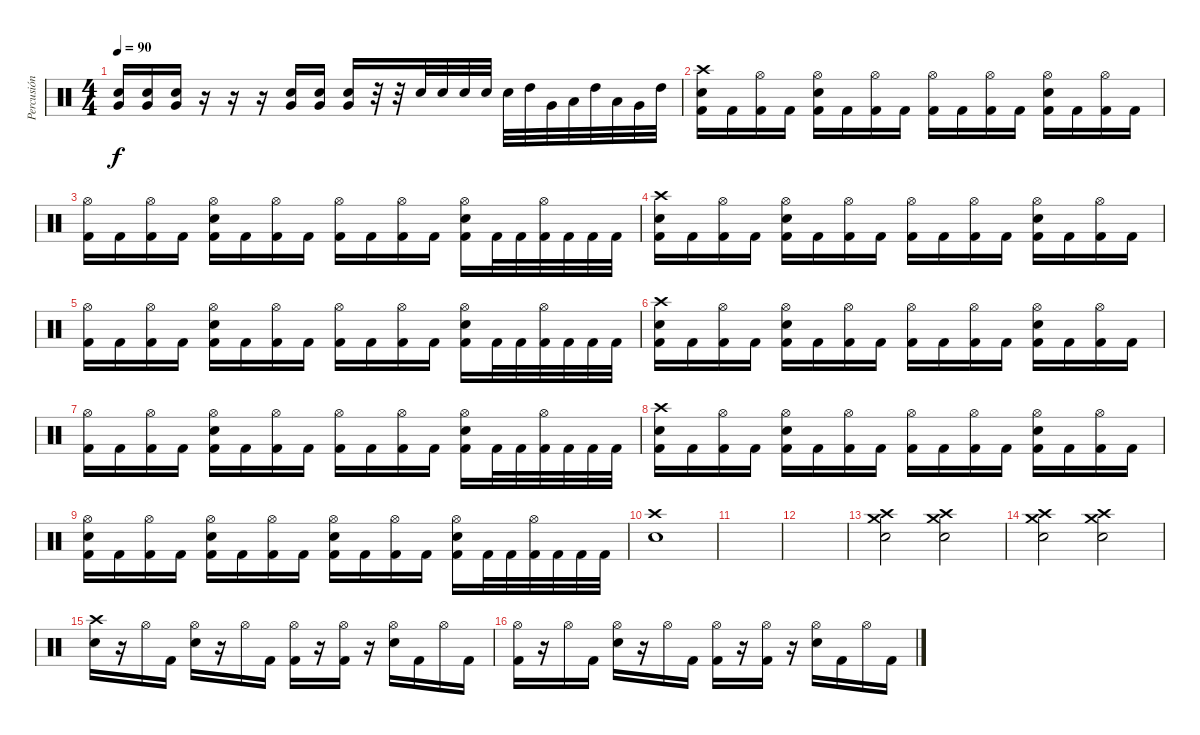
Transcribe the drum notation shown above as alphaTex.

\track ("Percusión" "Percusión") {instrument percussion}
\staff {score}
\articulation defaults
\ts (4 4)
\tempo 90
\clef neutral
\ks c
("Very Low Tom (hit)" "Electric Snare (hit)").16{dy f} ("Very Low Tom (hit)" "Electric Snare (hit)").16 ("Very Low Tom (hit)" "Electric Snare (hit)").16 r.16 r.16 r.16 ("Very Low Tom (hit)" "Electric Snare (hit)").16 ("Very Low Tom (hit)" "Electric Snare (hit)").16 ("Very Low Tom (hit)" "Electric Snare (hit)").16 r.32 r.32 "Electric Snare (hit)".32 "Electric Snare (hit)".32 "Electric Snare (hit)".32 "Electric Snare (hit)".32 "Electric Snare (hit)".32 "High Tom (hit)".32 "Very Low Tom (hit)".32 "Low Tom (hit)".32 "High Tom (hit)".32 "Low Tom (hit)".32 "Very Low Tom (hit)".32 "High Tom (hit)".32 |
("Electric Snare (hit)" "Crash high (hit)" "Kick (hit) 2").16 "Kick (hit) 2".16 ("Hi-Hat (open)" "Kick (hit) 2").16 "Kick (hit) 2".16 ("Hi-Hat (open)" "Electric Snare (hit)" "Kick (hit) 2").16 "Kick (hit) 2".16 ("Hi-Hat (open)" "Kick (hit) 2").16 "Kick (hit) 2".16 ("Hi-Hat (open)" "Kick (hit) 2").16 "Kick (hit) 2".16 ("Hi-Hat (open)" "Kick (hit) 2").16 "Kick (hit) 2".16 ("Hi-Hat (open)" "Electric Snare (hit)" "Kick (hit) 2").16 "Kick (hit) 2".16 ("Hi-Hat (open)" "Kick (hit) 2").16 "Kick (hit) 2".16 |
("Hi-Hat (open)" "Kick (hit) 2").16 "Kick (hit) 2".16 ("Hi-Hat (open)" "Kick (hit) 2").16 "Kick (hit) 2".16 ("Hi-Hat (open)" "Electric Snare (hit)" "Kick (hit) 2").16 "Kick (hit) 2".16 ("Hi-Hat (open)" "Kick (hit) 2").16 "Kick (hit) 2".16 ("Hi-Hat (open)" "Kick (hit) 2").16 "Kick (hit) 2".16 ("Hi-Hat (open)" "Kick (hit) 2").16 "Kick (hit) 2".16 ("Hi-Hat (open)" "Electric Snare (hit)" "Kick (hit) 2").16 "Kick (hit) 2".32 "Kick (hit) 2".32 ("Hi-Hat (open)" "Kick (hit) 2").32 "Kick (hit) 2".32 "Kick (hit) 2".32 "Kick (hit) 2".32 |
("Electric Snare (hit)" "Crash high (hit)" "Kick (hit) 2").16 "Kick (hit) 2".16 ("Hi-Hat (open)" "Kick (hit) 2").16 "Kick (hit) 2".16 ("Hi-Hat (open)" "Electric Snare (hit)" "Kick (hit) 2").16 "Kick (hit) 2".16 ("Hi-Hat (open)" "Kick (hit) 2").16 "Kick (hit) 2".16 ("Hi-Hat (open)" "Kick (hit) 2").16 "Kick (hit) 2".16 ("Hi-Hat (open)" "Kick (hit) 2").16 "Kick (hit) 2".16 ("Hi-Hat (open)" "Electric Snare (hit)" "Kick (hit) 2").16 "Kick (hit) 2".16 ("Hi-Hat (open)" "Kick (hit) 2").16 "Kick (hit) 2".16 |
("Hi-Hat (open)" "Kick (hit) 2").16 "Kick (hit) 2".16 ("Hi-Hat (open)" "Kick (hit) 2").16 "Kick (hit) 2".16 ("Hi-Hat (open)" "Electric Snare (hit)" "Kick (hit) 2").16 "Kick (hit) 2".16 ("Hi-Hat (open)" "Kick (hit) 2").16 "Kick (hit) 2".16 ("Hi-Hat (open)" "Kick (hit) 2").16 "Kick (hit) 2".16 ("Hi-Hat (open)" "Kick (hit) 2").16 "Kick (hit) 2".16 ("Hi-Hat (open)" "Electric Snare (hit)" "Kick (hit) 2").16 "Kick (hit) 2".32 "Kick (hit) 2".32 ("Hi-Hat (open)" "Kick (hit) 2").32 "Kick (hit) 2".32 "Kick (hit) 2".32 "Kick (hit) 2".32 |
("Electric Snare (hit)" "Crash high (hit)" "Kick (hit) 2").16 "Kick (hit) 2".16 ("Hi-Hat (open)" "Kick (hit) 2").16 "Kick (hit) 2".16 ("Hi-Hat (open)" "Electric Snare (hit)" "Kick (hit) 2").16 "Kick (hit) 2".16 ("Hi-Hat (open)" "Kick (hit) 2").16 "Kick (hit) 2".16 ("Hi-Hat (open)" "Kick (hit) 2").16 "Kick (hit) 2".16 ("Hi-Hat (open)" "Kick (hit) 2").16 "Kick (hit) 2".16 ("Hi-Hat (open)" "Electric Snare (hit)" "Kick (hit) 2").16 "Kick (hit) 2".16 ("Hi-Hat (open)" "Kick (hit) 2").16 "Kick (hit) 2".16 |
("Hi-Hat (open)" "Kick (hit) 2").16 "Kick (hit) 2".16 ("Hi-Hat (open)" "Kick (hit) 2").16 "Kick (hit) 2".16 ("Hi-Hat (open)" "Electric Snare (hit)" "Kick (hit) 2").16 "Kick (hit) 2".16 ("Hi-Hat (open)" "Kick (hit) 2").16 "Kick (hit) 2".16 ("Hi-Hat (open)" "Kick (hit) 2").16 "Kick (hit) 2".16 ("Hi-Hat (open)" "Kick (hit) 2").16 "Kick (hit) 2".16 ("Hi-Hat (open)" "Electric Snare (hit)" "Kick (hit) 2").16 "Kick (hit) 2".32 "Kick (hit) 2".32 ("Hi-Hat (open)" "Kick (hit) 2").32 "Kick (hit) 2".32 "Kick (hit) 2".32 "Kick (hit) 2".32 |
("Electric Snare (hit)" "Crash high (hit)" "Kick (hit) 2").16 "Kick (hit) 2".16 ("Hi-Hat (open)" "Kick (hit) 2").16 "Kick (hit) 2".16 ("Hi-Hat (open)" "Electric Snare (hit)" "Kick (hit) 2").16 "Kick (hit) 2".16 ("Hi-Hat (open)" "Kick (hit) 2").16 "Kick (hit) 2".16 ("Hi-Hat (open)" "Kick (hit) 2").16 "Kick (hit) 2".16 ("Hi-Hat (open)" "Kick (hit) 2").16 "Kick (hit) 2".16 ("Hi-Hat (open)" "Electric Snare (hit)" "Kick (hit) 2").16 "Kick (hit) 2".16 ("Hi-Hat (open)" "Kick (hit) 2").16 "Kick (hit) 2".16 |
("Electric Snare (hit)" "Hi-Hat (open)" "Kick (hit) 2").16 "Kick (hit) 2".16 ("Hi-Hat (open)" "Kick (hit) 2").16 "Kick (hit) 2".16 ("Hi-Hat (open)" "Electric Snare (hit)" "Kick (hit) 2").16 "Kick (hit) 2".16 ("Hi-Hat (open)" "Kick (hit) 2").16 "Kick (hit) 2".16 ("Electric Snare (hit)" "Hi-Hat (open)" "Kick (hit) 2").16 "Kick (hit) 2".16 ("Hi-Hat (open)" "Kick (hit) 2").16 "Kick (hit) 2".16 ("Hi-Hat (open)" "Electric Snare (hit)" "Kick (hit) 2").16 "Kick (hit) 2".32 "Kick (hit) 2".32 ("Hi-Hat (open)" "Kick (hit) 2").32 "Kick (hit) 2".32 "Kick (hit) 2".32 "Kick (hit) 2".32 |
("Electric Snare (hit)" "Crash high (hit)").1 |
|
|
("Crash medium (hit)" "Electric Snare (hit)" "Crash high (hit)").2 ("Crash high (hit)" "Crash medium (hit)" "Electric Snare (hit)").2 |
("Crash high (hit)" "Electric Snare (hit)" "Crash medium (hit)").2 ("Crash high (hit)" "Electric Snare (hit)" "Crash medium (hit)").2 |
("Electric Snare (hit)" "Crash high (hit)").16 r.16 "Hi-Hat (open)".16 "Kick (hit) 2".16 ("Hi-Hat (open)" "Electric Snare (hit)").16 r.16 "Hi-Hat (open)".16 "Kick (hit) 2".16 ("Hi-Hat (open)" "Kick (hit) 2").16 r.16 ("Hi-Hat (open)" "Kick (hit) 2").16 r.16 ("Hi-Hat (open)" "Electric Snare (hit)").16 "Kick (hit) 2".16 "Hi-Hat (open)".16 "Kick (hit) 2".16 |
("Hi-Hat (open)" "Kick (hit) 2").16 r.16 "Hi-Hat (open)".16 "Kick (hit) 2".16 ("Hi-Hat (open)" "Electric Snare (hit)").16 r.16 "Hi-Hat (open)".16 "Kick (hit) 2".16 ("Hi-Hat (open)" "Kick (hit) 2").16 r.16 ("Hi-Hat (open)" "Kick (hit) 2").16 r.16 ("Hi-Hat (open)" "Electric Snare (hit)").16 "Kick (hit) 2".16 "Hi-Hat (open)".16 "Kick (hit) 2".16
